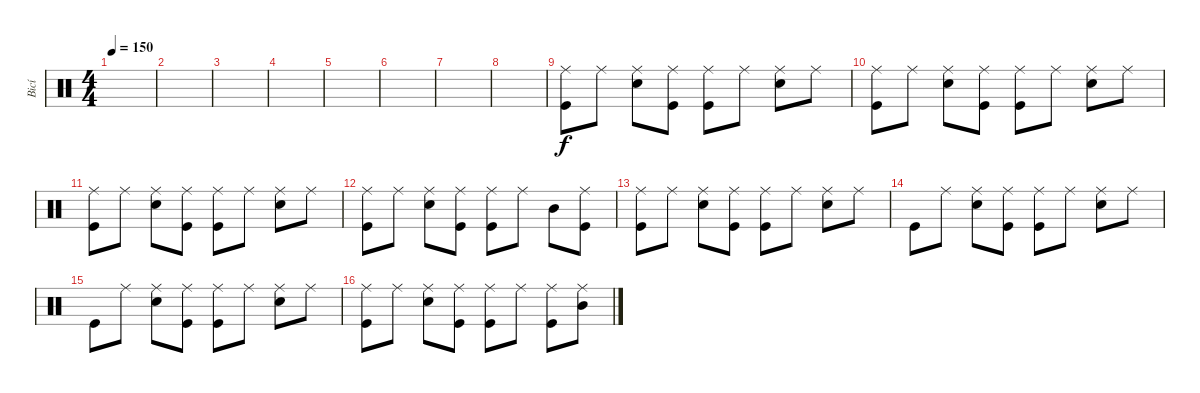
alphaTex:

\track ("Bicí" "Bicí") {instrument percussion}
\staff {score}
\articulation defaults
\ts (4 4)
\tempo 150
\clef neutral
\ks c
|
|
|
|
|
|
|
|
("Ride (middle)" "Kick (hit)").8 "Ride (middle)".8 ("Ride (middle)" "Snare (hit) 2").8 ("Ride (middle)" "Kick (hit)").8 ("Ride (middle)" "Kick (hit)").8 "Ride (middle)".8 ("Ride (middle)" "Snare (hit) 2").8 "Ride (middle)".8 |
("Ride (middle)" "Kick (hit)").8 "Ride (middle)".8 ("Ride (middle)" "Snare (hit) 2").8 ("Ride (middle)" "Kick (hit)").8 ("Ride (middle)" "Kick (hit)").8 "Ride (middle)".8 ("Ride (middle)" "Snare (hit) 2").8 "Ride (middle)".8 |
("Ride (middle)" "Kick (hit)").8 "Ride (middle)".8 ("Ride (middle)" "Snare (hit) 2").8 ("Ride (middle)" "Kick (hit)").8 ("Ride (middle)" "Kick (hit)").8 "Ride (middle)".8 ("Ride (middle)" "Snare (hit) 2").8 "Ride (middle)".8 |
("Ride (middle)" "Kick (hit)").8 "Ride (middle)".8 ("Ride (middle)" "Snare (hit) 2").8 ("Ride (middle)" "Kick (hit)").8 ("Ride (middle)" "Kick (hit)").8 "Ride (middle)".8 "Mid Tom (hit)".8 ("Ride (middle)" "Kick (hit)").8 |
("Ride (middle)" "Kick (hit)").8 "Ride (middle)".8 ("Ride (middle)" "Snare (hit) 2").8 ("Ride (middle)" "Kick (hit)").8 ("Ride (middle)" "Kick (hit)").8 "Ride (middle)".8 ("Ride (middle)" "Snare (hit) 2").8 "Ride (middle)".8 |
"Kick (hit)".8 "Ride (middle)".8 ("Ride (middle)" "Snare (hit) 2").8 ("Ride (middle)" "Kick (hit)").8 ("Ride (middle)" "Kick (hit)").8 "Ride (middle)".8 ("Ride (middle)" "Snare (hit) 2").8 "Ride (middle)".8 |
"Kick (hit)".8 "Ride (middle)".8 ("Ride (middle)" "Snare (hit) 2").8 ("Ride (middle)" "Kick (hit)").8 ("Ride (middle)" "Kick (hit)").8 "Ride (middle)".8 ("Ride (middle)" "Snare (hit) 2").8 "Ride (middle)".8 |
("Ride (middle)" "Kick (hit)").8 "Ride (middle)".8 ("Ride (middle)" "Snare (hit) 2").8 ("Ride (middle)" "Kick (hit)").8 ("Ride (middle)" "Kick (hit)").8 "Ride (middle)".8 ("Ride (middle)" "Kick (hit)").8 ("Ride (middle)" "Mid Tom (hit)").8
